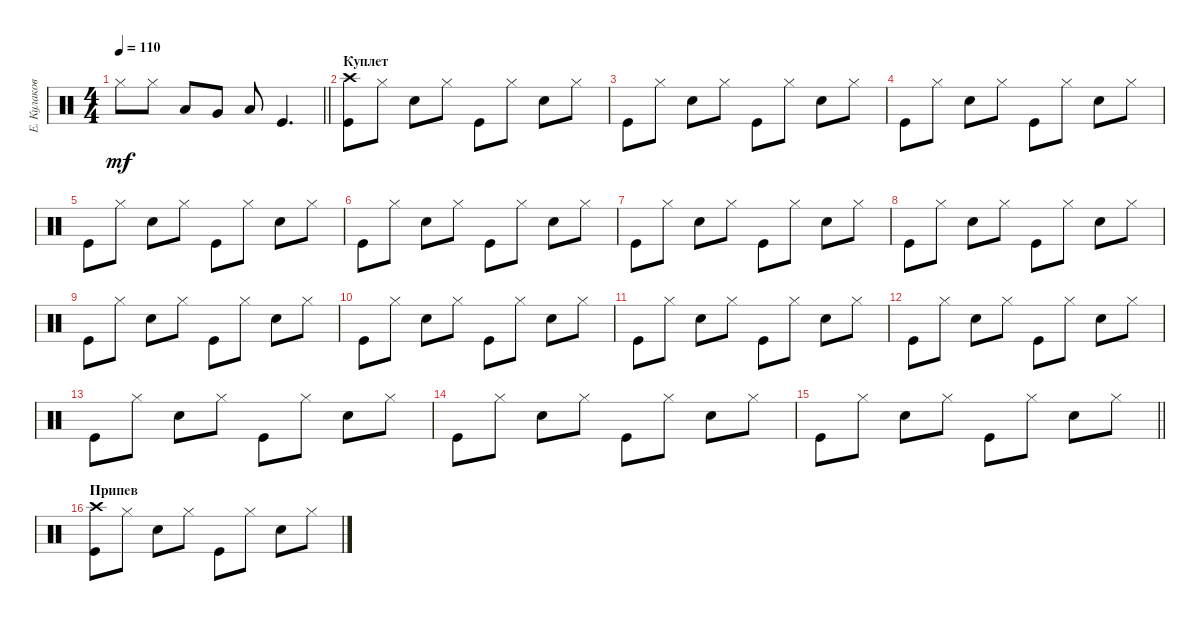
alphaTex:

\track ("Е. Кулаков" "Е. Кулаков") {instrument percussion}
\staff {score}
\articulation defaults
\ts (4 4)
\tempo 110
\clef neutral
\barLineRight lightlight
\ks c "Hi-Hat (closed)".8{dy mf} "Hi-Hat (closed)".8 "Low Tom (hit)".8 "Very Low Tom (hit)".8 "Low Floor Tom (hit)".8 "Kick (hit)".4{d}
|
\section ("" "Куплет")
("Kick (hit)" "Crash high (hit)").8 "Hi-Hat (closed)".8 "Snare (hit) 2".8 "Hi-Hat (closed)".8 "Kick (hit)".8 "Hi-Hat (closed)".8 "Snare (hit) 2".8 "Hi-Hat (closed)".8 |
"Kick (hit)".8 "Hi-Hat (closed)".8 "Snare (hit) 2".8 "Hi-Hat (closed)".8 "Kick (hit)".8 "Hi-Hat (closed)".8 "Snare (hit) 2".8 "Hi-Hat (closed)".8 |
"Kick (hit)".8 "Hi-Hat (closed)".8 "Snare (hit) 2".8 "Hi-Hat (closed)".8 "Kick (hit)".8 "Hi-Hat (closed)".8 "Snare (hit) 2".8 "Hi-Hat (closed)".8 |
"Kick (hit)".8 "Hi-Hat (closed)".8 "Snare (hit) 2".8 "Hi-Hat (closed)".8 "Kick (hit)".8 "Hi-Hat (closed)".8 "Snare (hit) 2".8 "Hi-Hat (closed)".8 |
"Kick (hit)".8 "Hi-Hat (closed)".8 "Snare (hit) 2".8 "Hi-Hat (closed)".8 "Kick (hit)".8 "Hi-Hat (closed)".8 "Snare (hit) 2".8 "Hi-Hat (closed)".8 |
"Kick (hit)".8 "Hi-Hat (closed)".8 "Snare (hit) 2".8 "Hi-Hat (closed)".8 "Kick (hit)".8 "Hi-Hat (closed)".8 "Snare (hit) 2".8 "Hi-Hat (closed)".8 |
"Kick (hit)".8 "Hi-Hat (closed)".8 "Snare (hit) 2".8 "Hi-Hat (closed)".8 "Kick (hit)".8 "Hi-Hat (closed)".8 "Snare (hit) 2".8 "Hi-Hat (closed)".8 |
"Kick (hit)".8 "Hi-Hat (closed)".8 "Snare (hit) 2".8 "Hi-Hat (closed)".8 "Kick (hit)".8 "Hi-Hat (closed)".8 "Snare (hit) 2".8 "Hi-Hat (closed)".8 |
"Kick (hit)".8 "Hi-Hat (closed)".8 "Snare (hit) 2".8 "Hi-Hat (closed)".8 "Kick (hit)".8 "Hi-Hat (closed)".8 "Snare (hit) 2".8 "Hi-Hat (closed)".8 |
"Kick (hit)".8 "Hi-Hat (closed)".8 "Snare (hit) 2".8 "Hi-Hat (closed)".8 "Kick (hit)".8 "Hi-Hat (closed)".8 "Snare (hit) 2".8 "Hi-Hat (closed)".8 |
"Kick (hit)".8 "Hi-Hat (closed)".8 "Snare (hit) 2".8 "Hi-Hat (closed)".8 "Kick (hit)".8 "Hi-Hat (closed)".8 "Snare (hit) 2".8 "Hi-Hat (closed)".8 |
"Kick (hit)".8 "Hi-Hat (closed)".8 "Snare (hit) 2".8 "Hi-Hat (closed)".8 "Kick (hit)".8 "Hi-Hat (closed)".8 "Snare (hit) 2".8 "Hi-Hat (closed)".8 |
"Kick (hit)".8 "Hi-Hat (closed)".8 "Snare (hit) 2".8 "Hi-Hat (closed)".8 "Kick (hit)".8 "Hi-Hat (closed)".8 "Snare (hit) 2".8 "Hi-Hat (closed)".8 |
\barLineRight lightlight "Kick (hit)".8 "Hi-Hat (closed)".8 "Snare (hit) 2".8 "Hi-Hat (closed)".8 "Kick (hit)".8 "Hi-Hat (closed)".8 "Snare (hit) 2".8 "Hi-Hat (closed)".8
|
\section ("" "Припев")
("Kick (hit)" "Crash high (hit)").8 "Hi-Hat (closed)".8 "Snare (hit) 2".8 "Hi-Hat (closed)".8 "Kick (hit)".8 "Hi-Hat (closed)".8 "Snare (hit) 2".8 "Hi-Hat (closed)".8
